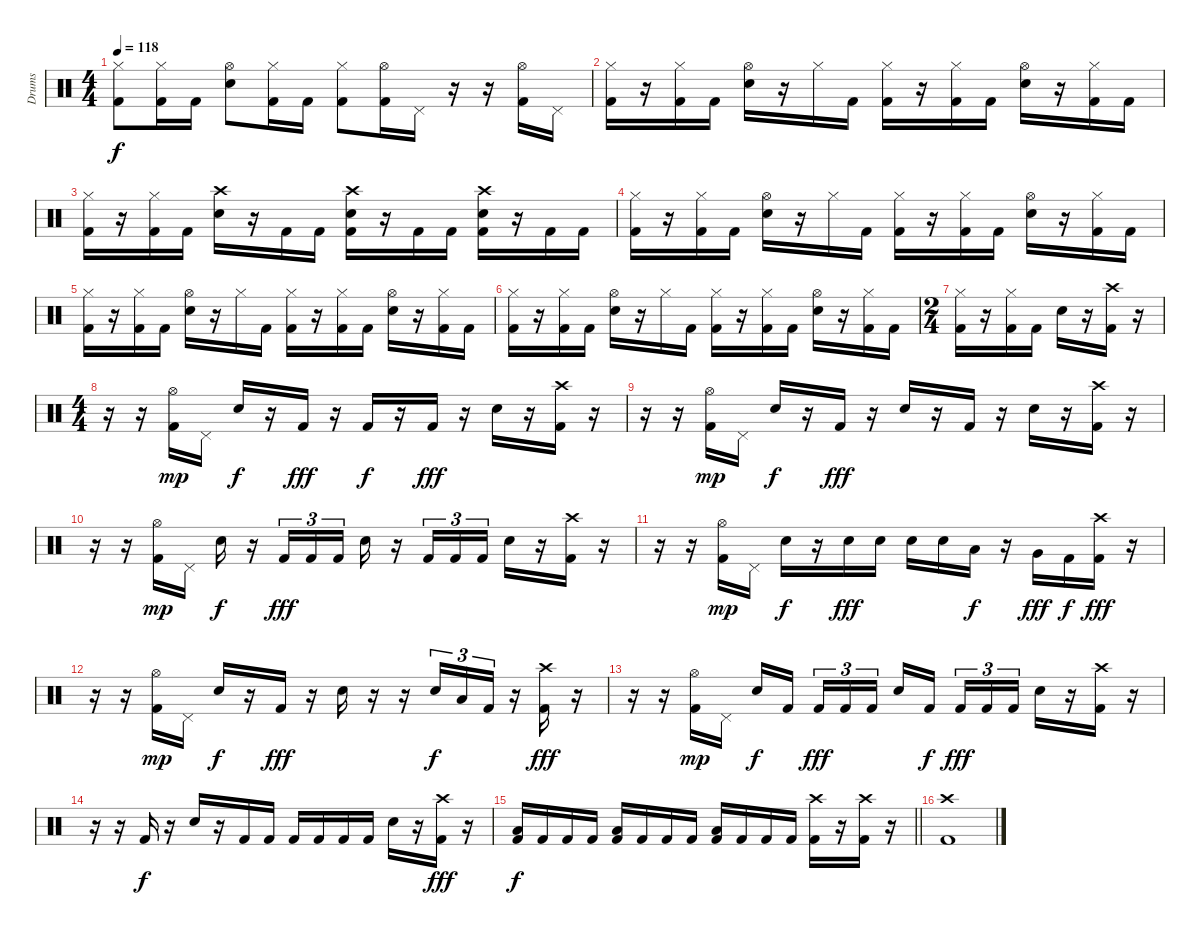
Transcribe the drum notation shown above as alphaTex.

\track ("Drums" "Drums") {instrument percussion}
\staff {score}
\articulation defaults
\ts (4 4)
\tempo 118
\clef neutral
\ks c
("Hi-Hat (closed)" "Kick (hit) 2").8{dy f} ("Hi-Hat (closed)" "Kick (hit) 2").16 "Kick (hit) 2".16 ("Hi-Hat (open)" "Snare (hit) 2").8 ("Hi-Hat (closed)" "Kick (hit) 2").16 "Kick (hit) 2".16 ("Hi-Hat (closed)" "Kick (hit) 2").8 ("Hi-Hat (open)" "Kick (hit) 2").16 "Pedal Hi-Hat (hit)".16 r.16 r.16 ("Hi-Hat (open)" "Kick (hit) 2").16 "Pedal Hi-Hat (hit)".16 |
("Hi-Hat (closed)" "Kick (hit) 2").16 r.16 ("Hi-Hat (closed)" "Kick (hit) 2").16 "Kick (hit) 2".16 ("Hi-Hat (open)" "Snare (hit) 2").16 r.16 "Hi-Hat (closed)".16 "Kick (hit) 2".16 ("Hi-Hat (closed)" "Kick (hit) 2").16 r.16 ("Hi-Hat (closed)" "Kick (hit) 2").16 "Kick (hit) 2".16 ("Hi-Hat (open)" "Snare (hit) 2").16 r.16 ("Hi-Hat (closed)" "Kick (hit) 2").16 "Kick (hit) 2".16 |
("Hi-Hat (closed)" "Kick (hit) 2").16 r.16 ("Hi-Hat (closed)" "Kick (hit) 2").16 "Kick (hit) 2".16 ("Crash high (hit)" "Snare (hit) 2").16 r.16 "Kick (hit) 2".16 "Kick (hit) 2".16 ("Crash high (hit)" "Snare (hit) 2" "Kick (hit) 2").16 r.16 "Kick (hit) 2".16 "Kick (hit) 2".16 ("Crash high (hit)" "Snare (hit) 2" "Kick (hit) 2").16 r.16 "Kick (hit) 2".16 "Kick (hit) 2".16 |
("Hi-Hat (closed)" "Kick (hit) 2").16 r.16 ("Hi-Hat (closed)" "Kick (hit) 2").16 "Kick (hit) 2".16 ("Hi-Hat (open)" "Snare (hit) 2").16 r.16 "Hi-Hat (closed)".16 "Kick (hit) 2".16 ("Hi-Hat (closed)" "Kick (hit) 2").16 r.16 ("Hi-Hat (closed)" "Kick (hit) 2").16 "Kick (hit) 2".16 ("Hi-Hat (open)" "Snare (hit) 2").16 r.16 ("Hi-Hat (closed)" "Kick (hit) 2").16 "Kick (hit) 2".16 |
("Hi-Hat (closed)" "Kick (hit) 2").16 r.16 ("Hi-Hat (closed)" "Kick (hit) 2").16 "Kick (hit) 2".16 ("Hi-Hat (open)" "Snare (hit) 2").16 r.16 "Hi-Hat (closed)".16 "Kick (hit) 2".16 ("Hi-Hat (closed)" "Kick (hit) 2").16 r.16 ("Hi-Hat (closed)" "Kick (hit) 2").16 "Kick (hit) 2".16 ("Hi-Hat (open)" "Snare (hit) 2").16 r.16 ("Hi-Hat (closed)" "Kick (hit) 2").16 "Kick (hit) 2".16 |
("Hi-Hat (closed)" "Kick (hit) 2").16 r.16 ("Hi-Hat (closed)" "Kick (hit) 2").16 "Kick (hit) 2".16 ("Hi-Hat (open)" "Snare (hit) 2").16 r.16 "Hi-Hat (closed)".16 "Kick (hit) 2".16 ("Hi-Hat (closed)" "Kick (hit) 2").16 r.16 ("Hi-Hat (closed)" "Kick (hit) 2").16 "Kick (hit) 2".16 ("Hi-Hat (open)" "Snare (hit) 2").16 r.16 ("Hi-Hat (closed)" "Kick (hit) 2").16 "Kick (hit) 2".16 |
\ts (2 4)
("Hi-Hat (closed)" "Kick (hit) 2").16 r.16 ("Hi-Hat (closed)" "Kick (hit) 2").16 "Kick (hit) 2".16 "Snare (hit) 2".16 r.16 ("Crash high (hit)" "Kick (hit) 2").16 r.16 |
\ts (4 4)
r.16 r.16 ("Hi-Hat (open)" "Kick (hit) 2").16{dy mp} "Pedal Hi-Hat (hit)".16 "Snare (hit) 2".16{dy f} r.16 "Kick (hit) 2".16{dy fff} r.16 "Kick (hit) 2".16{dy f} r.16 "Kick (hit) 2".16{dy fff} r.16 "Snare (hit) 2".16 r.16 ("Crash high (hit)" "Kick (hit) 2").16 r.16 |
r.16 r.16 ("Hi-Hat (open)" "Kick (hit) 2").16{dy mp} "Pedal Hi-Hat (hit)".16 "Snare (hit) 2".16{dy f} r.16 "Kick (hit) 2".16{dy fff} r.16 "Snare (hit) 2".16 r.16 "Kick (hit) 2".16 r.16 "Snare (hit) 2".16 r.16 ("Crash high (hit)" "Kick (hit) 2").16 r.16 |
r.16 r.16 ("Hi-Hat (open)" "Kick (hit) 2").16{dy mp} "Pedal Hi-Hat (hit)".16 "Snare (hit) 2".16{dy f} r.16 "Kick (hit) 2".16{tu (3 2) dy fff} "Kick (hit) 2".16{tu (3 2)} "Kick (hit) 2".16{tu (3 2)} "Snare (hit) 2".16 r.16 "Kick (hit) 2".16{tu (3 2)} "Kick (hit) 2".16{tu (3 2)} "Kick (hit) 2".16{tu (3 2)} "Snare (hit) 2".16 r.16 ("Crash high (hit)" "Kick (hit) 2").16 r.16 |
r.16 r.16 ("Hi-Hat (open)" "Kick (hit) 2").16{dy mp} "Pedal Hi-Hat (hit)".16 "Snare (hit) 2".16{dy f} r.16 "Snare (hit) 2".16{dy fff} "Snare (hit) 2".16 "Snare (hit) 2".16 "Snare (hit) 2".16 "Low Tom (hit)".16{dy f} r.16 "Very Low Tom (hit)".16{dy fff} "Kick (hit) 2".16{dy f} ("Crash high (hit)" "Kick (hit) 2").16{dy fff} r.16 |
r.16 r.16 ("Hi-Hat (open)" "Kick (hit) 2").16{dy mp} "Pedal Hi-Hat (hit)".16 "Snare (hit) 2".16{dy f} r.16 "Kick (hit) 2".16{dy fff} r.16 "Snare (hit) 2".16 r.16 r.16 "Snare (hit) 2".16{tu (3 2) dy f} "Low Tom (hit)".16{tu (3 2)} "Kick (hit) 2".16{tu (3 2)} r.16 ("Crash high (hit)" "Kick (hit) 2").16{dy fff} r.16 |
r.16 r.16 ("Hi-Hat (open)" "Kick (hit) 2").16{dy mp} "Pedal Hi-Hat (hit)".16 "Snare (hit) 2".16{dy f} "Kick (hit) 2".16{beam splitsecondary} "Kick (hit) 2".16{tu (3 2) dy fff} "Kick (hit) 2".16{tu (3 2)} "Kick (hit) 2".16{tu (3 2)} "Snare (hit) 2".16 "Kick (hit) 2".16{dy f beam splitsecondary} "Kick (hit) 2".16{tu (3 2) dy fff} "Kick (hit) 2".16{tu (3 2)} "Kick (hit) 2".16{tu (3 2)} "Snare (hit) 2".16 r.16 ("Crash high (hit)" "Kick (hit) 2").16 r.16 |
r.16 r.16 "Kick (hit) 2".16{dy f} r.16 "Snare (hit) 2".16 r.16 "Kick (hit) 2".16 "Kick (hit) 2".16 "Kick (hit) 2".16 "Kick (hit) 2".16 "Kick (hit) 2".16 "Kick (hit) 2".16 "Snare (hit) 2".16 r.16 ("Crash high (hit)" "Kick (hit) 2").16{dy fff} r.16 |
\barLineRight lightlight
("Low Floor Tom (hit)" "Kick (hit) 2").16{dy f} "Kick (hit) 2".16 "Kick (hit) 2".16 "Kick (hit) 2".16 ("Low Floor Tom (hit)" "Kick (hit) 2").16 "Kick (hit) 2".16 "Kick (hit) 2".16 "Kick (hit) 2".16 ("Low Floor Tom (hit)" "Kick (hit) 2").16 "Kick (hit) 2".16 "Kick (hit) 2".16 "Kick (hit) 2".16 ("Crash high (hit)" "Kick (hit) 2").16 r.16 ("Crash high (hit)" "Kick (hit) 2").16 r.16 |
("Crash high (hit)" "Kick (hit) 2").1
